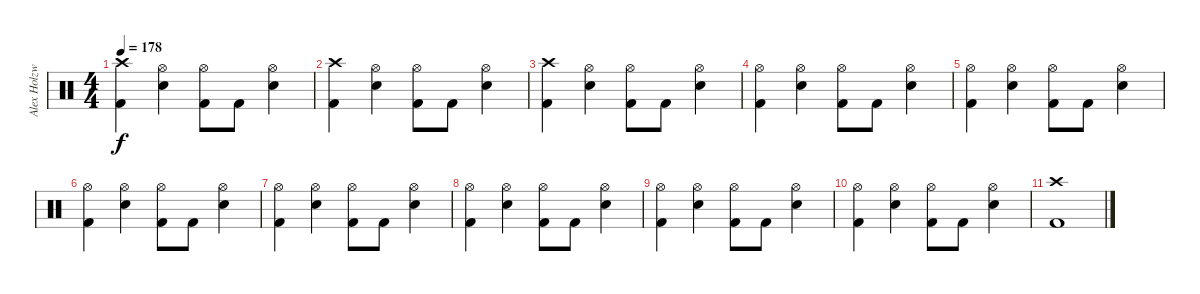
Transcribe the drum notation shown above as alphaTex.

\track ("Alex Holzwarth" "Alex Holzw") {instrument percussion}
\staff {score}
\articulation defaults
\ts (4 4)
\tempo 178
\clef neutral
\ks c
("Crash high (hit)" "Kick (hit) 2").4{dy f} ("Hi-Hat (open)" "Electric Snare (hit)").4 ("Hi-Hat (open)" "Kick (hit) 2").8 "Kick (hit) 2".8 ("Hi-Hat (open)" "Electric Snare (hit)").4 |
("Crash high (hit)" "Kick (hit) 2").4 ("Hi-Hat (open)" "Electric Snare (hit)").4 ("Hi-Hat (open)" "Kick (hit) 2").8 "Kick (hit) 2".8 ("Hi-Hat (open)" "Electric Snare (hit)").4 |
("Crash high (hit)" "Kick (hit) 2").4 ("Hi-Hat (open)" "Electric Snare (hit)").4 ("Hi-Hat (open)" "Kick (hit) 2").8 "Kick (hit) 2".8 ("Hi-Hat (open)" "Electric Snare (hit)").4 |
("Hi-Hat (open)" "Kick (hit) 2").4 ("Hi-Hat (open)" "Electric Snare (hit)").4 ("Hi-Hat (open)" "Kick (hit) 2").8 "Kick (hit) 2".8 ("Hi-Hat (open)" "Electric Snare (hit)").4 |
("Hi-Hat (open)" "Kick (hit) 2").4 ("Hi-Hat (open)" "Electric Snare (hit)").4 ("Hi-Hat (open)" "Kick (hit) 2").8 "Kick (hit) 2".8 ("Hi-Hat (open)" "Electric Snare (hit)").4 |
("Hi-Hat (open)" "Kick (hit) 2").4 ("Hi-Hat (open)" "Electric Snare (hit)").4 ("Hi-Hat (open)" "Kick (hit) 2").8 "Kick (hit) 2".8 ("Hi-Hat (open)" "Electric Snare (hit)").4 |
("Hi-Hat (open)" "Kick (hit) 2").4 ("Hi-Hat (open)" "Electric Snare (hit)").4 ("Hi-Hat (open)" "Kick (hit) 2").8 "Kick (hit) 2".8 ("Hi-Hat (open)" "Electric Snare (hit)").4 |
("Hi-Hat (open)" "Kick (hit) 2").4 ("Hi-Hat (open)" "Electric Snare (hit)").4 ("Hi-Hat (open)" "Kick (hit) 2").8 "Kick (hit) 2".8 ("Hi-Hat (open)" "Electric Snare (hit)").4 |
("Hi-Hat (open)" "Kick (hit) 2").4 ("Hi-Hat (open)" "Electric Snare (hit)").4 ("Hi-Hat (open)" "Kick (hit) 2").8 "Kick (hit) 2".8 ("Hi-Hat (open)" "Electric Snare (hit)").4 |
("Hi-Hat (open)" "Kick (hit) 2").4 ("Hi-Hat (open)" "Electric Snare (hit)").4 ("Hi-Hat (open)" "Kick (hit) 2").8 "Kick (hit) 2".8 ("Hi-Hat (open)" "Electric Snare (hit)").4 |
("Crash high (hit)" "Kick (hit) 2").1
